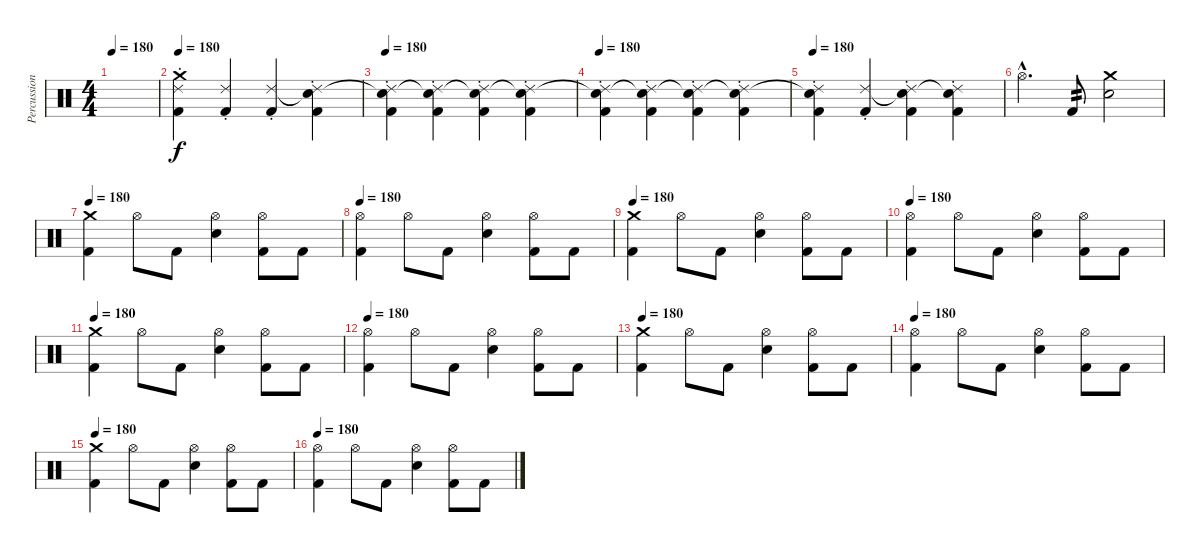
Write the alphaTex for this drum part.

\track ("Percussion" "Percussion") {instrument percussion}
\staff {score}
\articulation defaults
\ts (4 4)
\tempo 180
\clef neutral
\ks c
|
\tempo 180
("Crash medium (hit)" "Ride (choke) 2" "Kick (hit) 2").4 ("Ride (choke) 2" "Kick (hit) 2").4 ("Ride (choke) 2" "Kick (hit) 2").4 ("Snare (hit)"{t} "Ride (choke) 2" "Kick (hit) 2").4 |
\tempo 180
("Snare (hit)"{t} "Ride (choke) 2" "Kick (hit) 2").4 ("Snare (hit)"{t} "Ride (choke) 2" "Kick (hit) 2").4 ("Snare (hit)"{t} "Ride (choke) 2" "Kick (hit) 2").4 ("Snare (hit)"{t} "Ride (choke) 2" "Kick (hit) 2").4 |
\tempo 180
("Snare (hit)"{t} "Ride (choke) 2" "Kick (hit) 2").4 ("Snare (hit)"{t} "Ride (choke) 2" "Kick (hit) 2").4 ("Snare (hit)"{t} "Ride (choke) 2" "Kick (hit) 2").4 ("Snare (hit)"{t} "Ride (choke) 2" "Kick (hit) 2").4 |
\tempo 180
("Snare (hit)"{t} "Ride (choke) 2" "Kick (hit) 2").4 ("Ride (choke) 2" "Kick (hit) 2").4 ("Snare (hit)"{t} "Ride (choke) 2" "Kick (hit) 2").4 ("Snare (hit)"{t} "Ride (choke) 2" "Kick (hit) 2").4 |
"Hi-Hat (open)"{hac}.4{d} "Kick (hit) 2".8{tp 2} ("Crash medium (hit)" "Electric Snare (hit)").2 |
\tempo 180
("Crash medium (hit)" "Kick (hit) 2").4 "Hi-Hat (open)".8 "Kick (hit) 2".8 ("Hi-Hat (open)" "Electric Snare (hit)").4 ("Hi-Hat (open)" "Kick (hit) 2").8 "Kick (hit) 2".8 |
\tempo 180
("Hi-Hat (open)" "Kick (hit) 2").4 "Hi-Hat (open)".8 "Kick (hit) 2".8 ("Hi-Hat (open)" "Electric Snare (hit)").4 ("Hi-Hat (open)" "Kick (hit) 2").8 "Kick (hit) 2".8 |
\tempo 180
("Crash medium (hit)" "Kick (hit) 2").4 "Hi-Hat (open)".8 "Kick (hit) 2".8 ("Hi-Hat (open)" "Electric Snare (hit)").4 ("Hi-Hat (open)" "Kick (hit) 2").8 "Kick (hit) 2".8 |
\tempo 180
("Hi-Hat (open)" "Kick (hit) 2").4 "Hi-Hat (open)".8 "Kick (hit) 2".8 ("Hi-Hat (open)" "Electric Snare (hit)").4 ("Hi-Hat (open)" "Kick (hit) 2").8 "Kick (hit) 2".8 |
\tempo 180
("Crash medium (hit)" "Kick (hit) 2").4 "Hi-Hat (open)".8 "Kick (hit) 2".8 ("Hi-Hat (open)" "Electric Snare (hit)").4 ("Hi-Hat (open)" "Kick (hit) 2").8 "Kick (hit) 2".8 |
\tempo 180
("Hi-Hat (open)" "Kick (hit) 2").4 "Hi-Hat (open)".8 "Kick (hit) 2".8 ("Hi-Hat (open)" "Electric Snare (hit)").4 ("Hi-Hat (open)" "Kick (hit) 2").8 "Kick (hit) 2".8 |
\tempo 180
("Crash medium (hit)" "Kick (hit) 2").4 "Hi-Hat (open)".8 "Kick (hit) 2".8 ("Hi-Hat (open)" "Electric Snare (hit)").4 ("Hi-Hat (open)" "Kick (hit) 2").8 "Kick (hit) 2".8 |
\tempo 180
("Hi-Hat (open)" "Kick (hit) 2").4 "Hi-Hat (open)".8 "Kick (hit) 2".8 ("Hi-Hat (open)" "Electric Snare (hit)").4 ("Hi-Hat (open)" "Kick (hit) 2").8 "Kick (hit) 2".8 |
\tempo 180
("Crash medium (hit)" "Kick (hit) 2").4 "Hi-Hat (open)".8 "Kick (hit) 2".8 ("Hi-Hat (open)" "Electric Snare (hit)").4 ("Hi-Hat (open)" "Kick (hit) 2").8 "Kick (hit) 2".8 |
\tempo 180
("Hi-Hat (open)" "Kick (hit) 2").4 "Hi-Hat (open)".8 "Kick (hit) 2".8 ("Hi-Hat (open)" "Electric Snare (hit)").4 ("Hi-Hat (open)" "Kick (hit) 2").8 "Kick (hit) 2".8
